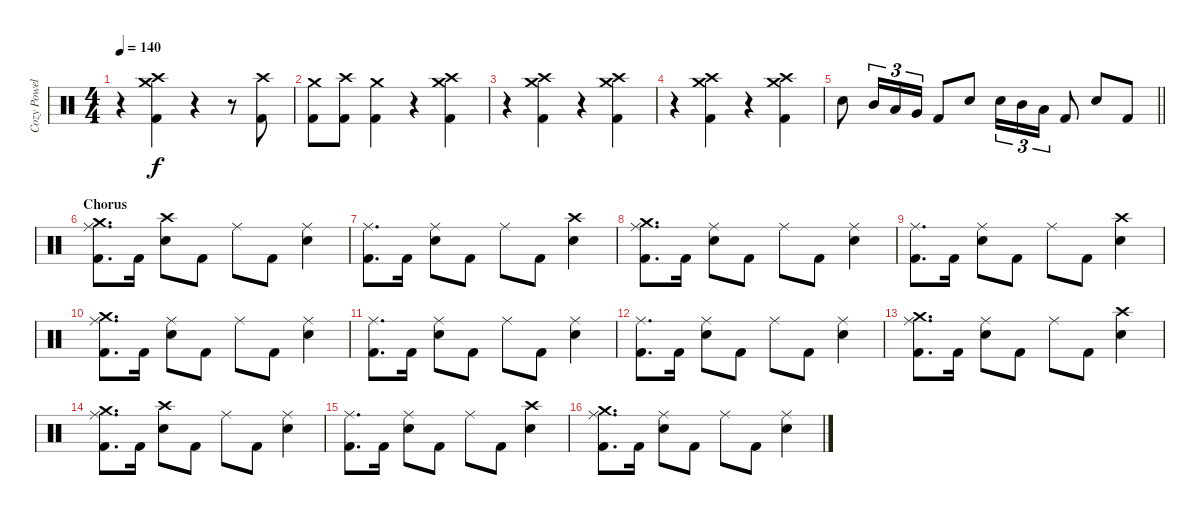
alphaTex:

\track ("Cozy Powell" "Cozy Powel") {instrument percussion}
\staff {score}
\articulation defaults
\ts (4 4)
\tempo 140
\clef neutral
\ks c
r.4{dy f} ("Crash medium (hit)" "Crash high (hit)" "Kick (hit) 2").4 r.4 r.8 ("Crash high (hit)" "Kick (hit) 2").8 |
("Crash medium (hit)" "Kick (hit) 2").8 ("Crash high (hit)" "Kick (hit) 2").8 ("Crash medium (hit)" "Kick (hit) 2").4 r.4 ("Crash medium (hit)" "Crash high (hit)" "Kick (hit) 2").4 |
r.4 ("Crash medium (hit)" "Crash high (hit)" "Kick (hit) 2").4 r.4 ("Crash medium (hit)" "Crash high (hit)" "Kick (hit) 2").4 |
r.4 ("Crash medium (hit)" "Crash high (hit)" "Kick (hit) 2").4 r.4 ("Crash medium (hit)" "Crash high (hit)" "Kick (hit) 2").4 |
\barLineRight lightlight "Snare (hit) 2".8 "Mid Tom (hit)".16{tu (3 2)} "Low Tom (hit)".16{tu (3 2)} "Very Low Tom (hit)".16{tu (3 2)} "Kick (hit) 2".8 "Snare (hit) 2".8 "Snare (hit) 2".16{tu (3 2)} "Mid Tom (hit)".16{tu (3 2)} "Low Tom (hit)".16{tu (3 2)} "Kick (hit) 2".8 "Snare (hit) 2".8 "Kick (hit) 2".8
|
\section ("" "Chorus")
("Crash medium (hit)" "Ride (middle)" "Kick (hit) 2").8{d} "Kick (hit) 2".16 ("Crash high (hit)" "Snare (hit) 2").8 "Kick (hit) 2".8 "Ride (middle)".8 "Kick (hit) 2".8 ("Ride (middle)" "Snare (hit) 2").4 |
("Ride (middle)" "Kick (hit) 2").8{d} "Kick (hit) 2".16 ("Ride (middle)" "Snare (hit) 2").8 "Kick (hit) 2".8 "Ride (middle)".8 "Kick (hit) 2".8 ("Crash high (hit)" "Snare (hit) 2").4 |
("Crash medium (hit)" "Ride (middle)" "Kick (hit) 2").8{d} "Kick (hit) 2".16 ("Ride (middle)" "Snare (hit) 2").8 "Kick (hit) 2".8 "Ride (middle)".8 "Kick (hit) 2".8 ("Ride (middle)" "Snare (hit) 2").4 |
("Ride (middle)" "Kick (hit) 2").8{d} "Kick (hit) 2".16 ("Ride (middle)" "Snare (hit) 2").8 "Kick (hit) 2".8 "Ride (middle)".8 "Kick (hit) 2".8 ("Crash high (hit)" "Snare (hit) 2").4 |
("Crash medium (hit)" "Ride (middle)" "Kick (hit) 2").8{d} "Kick (hit) 2".16 ("Ride (middle)" "Snare (hit) 2").8 "Kick (hit) 2".8 "Ride (middle)".8 "Kick (hit) 2".8 ("Ride (middle)" "Snare (hit) 2").4 |
("Ride (middle)" "Kick (hit) 2").8{d} "Kick (hit) 2".16 ("Ride (middle)" "Snare (hit) 2").8 "Kick (hit) 2".8 "Ride (middle)".8 "Kick (hit) 2".8 ("Ride (middle)" "Snare (hit) 2").4 |
("Ride (middle)" "Kick (hit) 2").8{d} "Kick (hit) 2".16 ("Ride (middle)" "Snare (hit) 2").8 "Kick (hit) 2".8 "Ride (middle)".8 "Kick (hit) 2".8 ("Ride (middle)" "Snare (hit) 2").4 |
("Crash medium (hit)" "Ride (middle)" "Kick (hit) 2").8{d} "Kick (hit) 2".16 ("Ride (middle)" "Snare (hit) 2").8 "Kick (hit) 2".8 "Ride (middle)".8 "Kick (hit) 2".8 ("Crash high (hit)" "Snare (hit) 2").4 |
("Crash medium (hit)" "Ride (middle)" "Kick (hit) 2").8{d} "Kick (hit) 2".16 ("Crash high (hit)" "Snare (hit) 2").8 "Kick (hit) 2".8 "Ride (middle)".8 "Kick (hit) 2".8 ("Ride (middle)" "Snare (hit) 2").4 |
("Ride (middle)" "Kick (hit) 2").8{d} "Kick (hit) 2".16 ("Ride (middle)" "Snare (hit) 2").8 "Kick (hit) 2".8 "Ride (middle)".8 "Kick (hit) 2".8 ("Crash high (hit)" "Snare (hit) 2").4 |
("Crash medium (hit)" "Ride (middle)" "Kick (hit) 2").8{d} "Kick (hit) 2".16 ("Ride (middle)" "Snare (hit) 2").8 "Kick (hit) 2".8 "Ride (middle)".8 "Kick (hit) 2".8 ("Ride (middle)" "Snare (hit) 2").4
